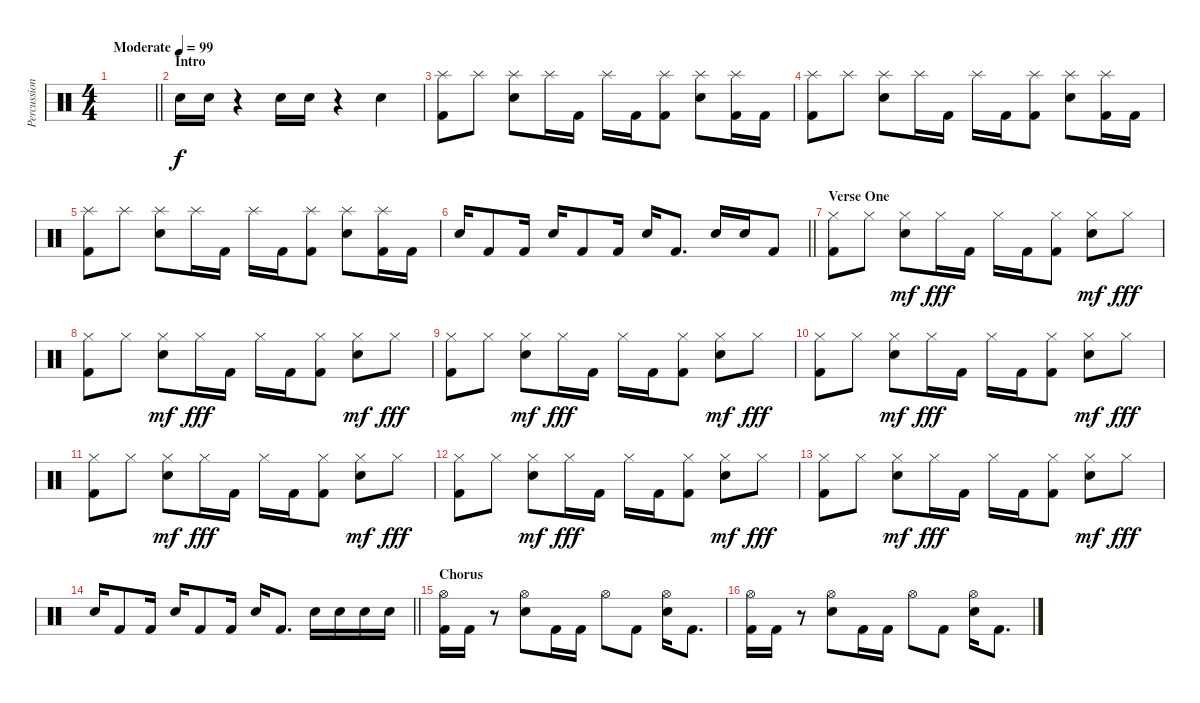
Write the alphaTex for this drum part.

\track ("Percussion" "Percussion") {instrument percussion}
\staff {score}
\articulation defaults
\ts (4 4)
\tempo (99 "Moderate")
\clef neutral
\barLineRight lightlight
\ks c
|
\section ("" "Intro")
"Snare (hit) 2".16 "Snare (hit) 2".16 r.4 "Snare (hit) 2".16 "Snare (hit) 2".16 r.4 "Snare (hit) 2".4 |
("Splash (hit)" "Kick (hit) 2").8 "Splash (hit)".8 ("Splash (hit)" "Snare (hit) 2").8 "Splash (hit)".16 "Kick (hit) 2".16 "Splash (hit)".16 "Kick (hit) 2".16 ("Splash (hit)" "Kick (hit) 2").8 ("Splash (hit)" "Snare (hit) 2").8 ("Splash (hit)" "Kick (hit) 2").16 "Kick (hit) 2".16 |
("Splash (hit)" "Kick (hit) 2").8 "Splash (hit)".8 ("Splash (hit)" "Snare (hit) 2").8 "Splash (hit)".16 "Kick (hit) 2".16 "Splash (hit)".16 "Kick (hit) 2".16 ("Splash (hit)" "Kick (hit) 2").8 ("Splash (hit)" "Snare (hit) 2").8 ("Splash (hit)" "Kick (hit) 2").16 "Kick (hit) 2".16 |
("Splash (hit)" "Kick (hit) 2").8 "Splash (hit)".8 ("Splash (hit)" "Snare (hit) 2").8 "Splash (hit)".16 "Kick (hit) 2".16 "Splash (hit)".16 "Kick (hit) 2".16 ("Splash (hit)" "Kick (hit) 2").8 ("Splash (hit)" "Snare (hit) 2").8 ("Splash (hit)" "Kick (hit) 2").16 "Kick (hit) 2".16 |
\barLineRight lightlight "Snare (hit) 2".16 "Kick (hit) 2".8 "Kick (hit) 2".16 "Snare (hit) 2".16 "Kick (hit) 2".8 "Kick (hit) 2".16 "Snare (hit) 2".16 "Kick (hit) 2".8{d} "Snare (hit) 2".16 "Snare (hit) 2".16 "Kick (hit) 2".8
|
\section ("" "Verse One")
("Hi-Hat (closed)" "Kick (hit) 2").8 "Hi-Hat (closed)".8 ("Hi-Hat (closed)" "Snare (hit) 2").8{dy mf} "Hi-Hat (closed)".16{dy fff} "Kick (hit) 2".16 "Hi-Hat (closed)".16 "Kick (hit) 2".16 ("Hi-Hat (closed)" "Kick (hit) 2").8 ("Hi-Hat (closed)" "Snare (hit) 2").8{dy mf} "Hi-Hat (closed)".8{dy fff} |
("Hi-Hat (closed)" "Kick (hit) 2").8 "Hi-Hat (closed)".8 ("Hi-Hat (closed)" "Snare (hit) 2").8{dy mf} "Hi-Hat (closed)".16{dy fff} "Kick (hit) 2".16 "Hi-Hat (closed)".16 "Kick (hit) 2".16 ("Hi-Hat (closed)" "Kick (hit) 2").8 ("Hi-Hat (closed)" "Snare (hit) 2").8{dy mf} "Hi-Hat (closed)".8{dy fff} |
("Hi-Hat (closed)" "Kick (hit) 2").8 "Hi-Hat (closed)".8 ("Hi-Hat (closed)" "Snare (hit) 2").8{dy mf} "Hi-Hat (closed)".16{dy fff} "Kick (hit) 2".16 "Hi-Hat (closed)".16 "Kick (hit) 2".16 ("Hi-Hat (closed)" "Kick (hit) 2").8 ("Hi-Hat (closed)" "Snare (hit) 2").8{dy mf} "Hi-Hat (closed)".8{dy fff} |
("Hi-Hat (closed)" "Kick (hit) 2").8 "Hi-Hat (closed)".8 ("Hi-Hat (closed)" "Snare (hit) 2").8{dy mf} "Hi-Hat (closed)".16{dy fff} "Kick (hit) 2".16 "Hi-Hat (closed)".16 "Kick (hit) 2".16 ("Hi-Hat (closed)" "Kick (hit) 2").8 ("Hi-Hat (closed)" "Snare (hit) 2").8{dy mf} "Hi-Hat (closed)".8{dy fff} |
("Hi-Hat (closed)" "Kick (hit) 2").8 "Hi-Hat (closed)".8 ("Hi-Hat (closed)" "Snare (hit) 2").8{dy mf} "Hi-Hat (closed)".16{dy fff} "Kick (hit) 2".16 "Hi-Hat (closed)".16 "Kick (hit) 2".16 ("Hi-Hat (closed)" "Kick (hit) 2").8 ("Hi-Hat (closed)" "Snare (hit) 2").8{dy mf} "Hi-Hat (closed)".8{dy fff} |
("Hi-Hat (closed)" "Kick (hit) 2").8 "Hi-Hat (closed)".8 ("Hi-Hat (closed)" "Snare (hit) 2").8{dy mf} "Hi-Hat (closed)".16{dy fff} "Kick (hit) 2".16 "Hi-Hat (closed)".16 "Kick (hit) 2".16 ("Hi-Hat (closed)" "Kick (hit) 2").8 ("Hi-Hat (closed)" "Snare (hit) 2").8{dy mf} "Hi-Hat (closed)".8{dy fff} |
("Hi-Hat (closed)" "Kick (hit) 2").8 "Hi-Hat (closed)".8 ("Hi-Hat (closed)" "Snare (hit) 2").8{dy mf} "Hi-Hat (closed)".16{dy fff} "Kick (hit) 2".16 "Hi-Hat (closed)".16 "Kick (hit) 2".16 ("Hi-Hat (closed)" "Kick (hit) 2").8 ("Hi-Hat (closed)" "Snare (hit) 2").8{dy mf} "Hi-Hat (closed)".8{dy fff} |
\barLineRight lightlight "Snare (hit) 2".16 "Kick (hit) 2".8 "Kick (hit) 2".16 "Snare (hit) 2".16 "Kick (hit) 2".8 "Kick (hit) 2".16 "Snare (hit) 2".16 "Kick (hit) 2".8{d} "Snare (hit) 2".16 "Snare (hit) 2".16 "Snare (hit) 2".16 "Snare (hit) 2".16
|
\section ("" "Chorus")
("Kick (hit) 2" "Hi-Hat (open)").16 "Kick (hit) 2".16 r.8 ("Snare (hit) 2" "Hi-Hat (open)").8 "Kick (hit) 2".16 "Kick (hit) 2".16 "Hi-Hat (open)".8 "Kick (hit) 2".8 ("Snare (hit) 2" "Hi-Hat (open)").16 "Kick (hit) 2".8{d} |
("Kick (hit) 2" "Hi-Hat (open)").16 "Kick (hit) 2".16 r.8 ("Snare (hit) 2" "Hi-Hat (open)").8 "Kick (hit) 2".16 "Kick (hit) 2".16 "Hi-Hat (open)".8 "Kick (hit) 2".8 ("Snare (hit) 2" "Hi-Hat (open)").16 "Kick (hit) 2".8{d}
